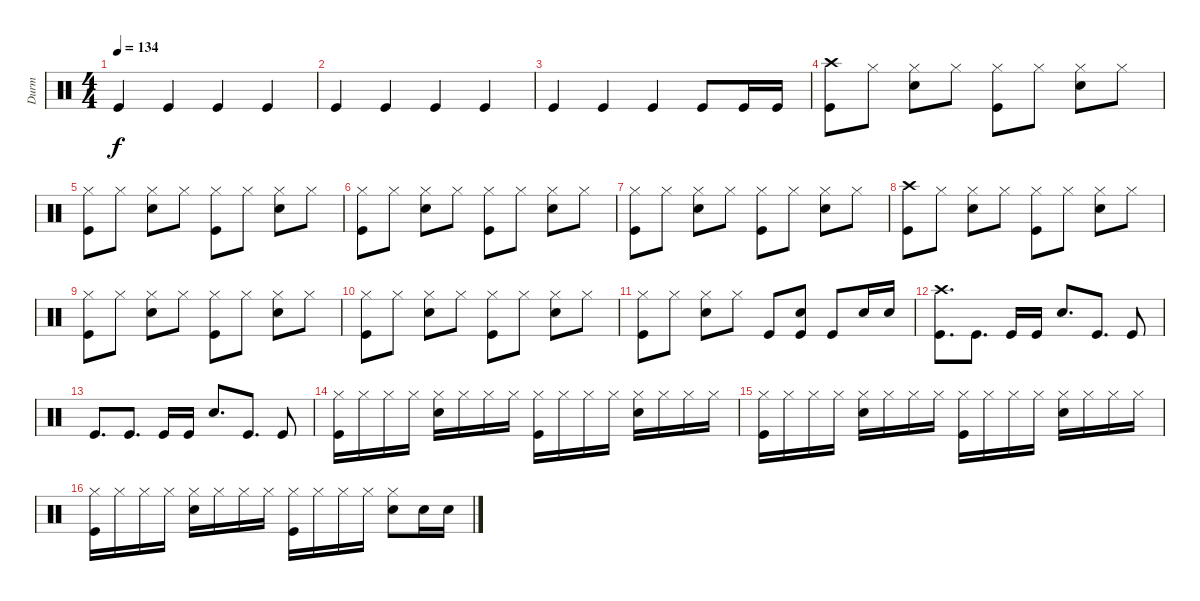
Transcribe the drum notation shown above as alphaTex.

\track ("Durm" "Durm") {instrument percussion}
\staff {score}
\articulation defaults
\ts (4 4)
\tempo 134
\clef neutral
\ks c "Kick (hit)".4{dy f} "Kick (hit)".4 "Kick (hit)".4 "Kick (hit)".4
|
"Kick (hit)".4 "Kick (hit)".4 "Kick (hit)".4 "Kick (hit)".4 |
"Kick (hit)".4 "Kick (hit)".4 "Kick (hit)".4 "Kick (hit)".8 "Kick (hit)".16 "Kick (hit)".16 |
("Crash high (hit)" "Kick (hit)").8 "Hi-Hat (closed)".8 ("Hi-Hat (closed)" "Electric Snare (hit)").8 "Hi-Hat (closed)".8 ("Hi-Hat (closed)" "Kick (hit)").8 "Hi-Hat (closed)".8 ("Hi-Hat (closed)" "Electric Snare (hit)").8 "Hi-Hat (closed)".8 |
("Hi-Hat (closed)" "Kick (hit)").8 "Hi-Hat (closed)".8 ("Hi-Hat (closed)" "Electric Snare (hit)").8 "Hi-Hat (closed)".8 ("Hi-Hat (closed)" "Kick (hit)").8 "Hi-Hat (closed)".8 ("Hi-Hat (closed)" "Electric Snare (hit)").8 "Hi-Hat (closed)".8 |
("Hi-Hat (closed)" "Kick (hit)").8 "Hi-Hat (closed)".8 ("Hi-Hat (closed)" "Electric Snare (hit)").8 "Hi-Hat (closed)".8 ("Hi-Hat (closed)" "Kick (hit)").8 "Hi-Hat (closed)".8 ("Hi-Hat (closed)" "Electric Snare (hit)").8 "Hi-Hat (closed)".8 |
("Hi-Hat (closed)" "Kick (hit)").8 "Hi-Hat (closed)".8 ("Hi-Hat (closed)" "Electric Snare (hit)").8 "Hi-Hat (closed)".8 ("Hi-Hat (closed)" "Kick (hit)").8 "Hi-Hat (closed)".8 ("Hi-Hat (closed)" "Electric Snare (hit)").8 "Hi-Hat (closed)".8 |
("Crash high (hit)" "Kick (hit)").8 "Hi-Hat (closed)".8 ("Hi-Hat (closed)" "Electric Snare (hit)").8 "Hi-Hat (closed)".8 ("Hi-Hat (closed)" "Kick (hit)").8 "Hi-Hat (closed)".8 ("Hi-Hat (closed)" "Electric Snare (hit)").8 "Hi-Hat (closed)".8 |
("Hi-Hat (closed)" "Kick (hit)").8 "Hi-Hat (closed)".8 ("Hi-Hat (closed)" "Electric Snare (hit)").8 "Hi-Hat (closed)".8 ("Hi-Hat (closed)" "Kick (hit)").8 "Hi-Hat (closed)".8 ("Hi-Hat (closed)" "Electric Snare (hit)").8 "Hi-Hat (closed)".8 |
("Hi-Hat (closed)" "Kick (hit)").8 "Hi-Hat (closed)".8 ("Hi-Hat (closed)" "Electric Snare (hit)").8 "Hi-Hat (closed)".8 ("Hi-Hat (closed)" "Kick (hit)").8 "Hi-Hat (closed)".8 ("Hi-Hat (closed)" "Electric Snare (hit)").8 "Hi-Hat (closed)".8 |
("Hi-Hat (closed)" "Kick (hit)").8 "Hi-Hat (closed)".8 ("Hi-Hat (closed)" "Electric Snare (hit)").8 "Hi-Hat (closed)".8 "Kick (hit)".8 ("Electric Snare (hit)" "Kick (hit)").8 "Kick (hit)".8 "Electric Snare (hit)".16 "Electric Snare (hit)".16 |
("Crash high (hit)" "Kick (hit)").8{d} "Kick (hit)".8{d} "Kick (hit)".16 "Kick (hit)".16 "Electric Snare (hit)".8{d} "Kick (hit)".8{d} "Kick (hit)".8 |
"Kick (hit)".8{d} "Kick (hit)".8{d} "Kick (hit)".16 "Kick (hit)".16 "Electric Snare (hit)".8{d} "Kick (hit)".8{d} "Kick (hit)".8 |
("Hi-Hat (closed)" "Kick (hit)").16 "Hi-Hat (closed)".16 "Hi-Hat (closed)".16 "Hi-Hat (closed)".16 ("Hi-Hat (closed)" "Electric Snare (hit)").16 "Hi-Hat (closed)".16 "Hi-Hat (closed)".16 "Hi-Hat (closed)".16 ("Hi-Hat (closed)" "Kick (hit)").16 "Hi-Hat (closed)".16 "Hi-Hat (closed)".16 "Hi-Hat (closed)".16 ("Hi-Hat (closed)" "Electric Snare (hit)").16 "Hi-Hat (closed)".16 "Hi-Hat (closed)".16 "Hi-Hat (closed)".16 |
("Hi-Hat (closed)" "Kick (hit)").16 "Hi-Hat (closed)".16 "Hi-Hat (closed)".16 "Hi-Hat (closed)".16 ("Hi-Hat (closed)" "Electric Snare (hit)").16 "Hi-Hat (closed)".16 "Hi-Hat (closed)".16 "Hi-Hat (closed)".16 ("Hi-Hat (closed)" "Kick (hit)").16 "Hi-Hat (closed)".16 "Hi-Hat (closed)".16 "Hi-Hat (closed)".16 ("Hi-Hat (closed)" "Electric Snare (hit)").16 "Hi-Hat (closed)".16 "Hi-Hat (closed)".16 "Hi-Hat (closed)".16 |
("Hi-Hat (closed)" "Kick (hit)").16 "Hi-Hat (closed)".16 "Hi-Hat (closed)".16 "Hi-Hat (closed)".16 ("Hi-Hat (closed)" "Electric Snare (hit)").16 "Hi-Hat (closed)".16 "Hi-Hat (closed)".16 "Hi-Hat (closed)".16 ("Hi-Hat (closed)" "Kick (hit)").16 "Hi-Hat (closed)".16 "Hi-Hat (closed)".16 "Hi-Hat (closed)".16 ("Hi-Hat (closed)" "Electric Snare (hit)").8 "Electric Snare (hit)".16 "Electric Snare (hit)".16
